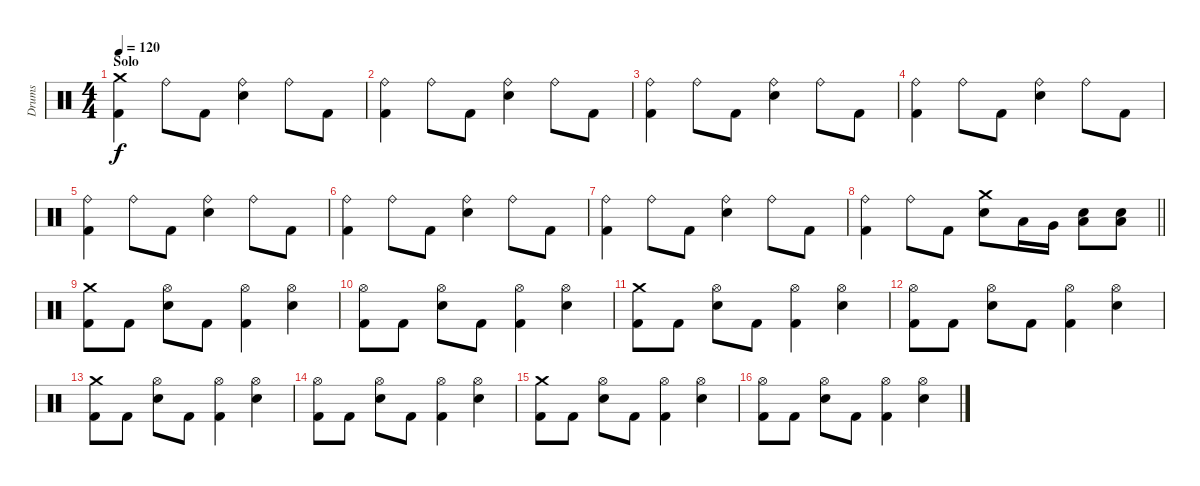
\track ("Drums" "Drums") {instrument percussion}
\staff {score}
\articulation defaults
\ts (4 4)
\section ("" "Solo")
\tempo 120
\clef neutral
\ks c
("Crash medium (hit)" "Kick (hit) 2").4{dy f} "Ride (bell)".8 "Kick (hit) 2".8 ("Ride (bell)" "Snare (hit) 2").4 "Ride (bell)".8 "Kick (hit) 2".8 |
("Ride (bell)" "Kick (hit) 2").4 "Ride (bell)".8 "Kick (hit) 2".8 ("Ride (bell)" "Snare (hit) 2").4 "Ride (bell)".8 "Kick (hit) 2".8 |
("Ride (bell)" "Kick (hit) 2").4 "Ride (bell)".8 "Kick (hit) 2".8 ("Ride (bell)" "Snare (hit) 2").4 "Ride (bell)".8 "Kick (hit) 2".8 |
("Ride (bell)" "Kick (hit) 2").4 "Ride (bell)".8 "Kick (hit) 2".8 ("Ride (bell)" "Snare (hit) 2").4 "Ride (bell)".8 "Kick (hit) 2".8 |
("Ride (bell)" "Kick (hit) 2").4 "Ride (bell)".8 "Kick (hit) 2".8 ("Ride (bell)" "Snare (hit) 2").4 "Ride (bell)".8 "Kick (hit) 2".8 |
("Ride (bell)" "Kick (hit) 2").4 "Ride (bell)".8 "Kick (hit) 2".8 ("Ride (bell)" "Snare (hit) 2").4 "Ride (bell)".8 "Kick (hit) 2".8 |
("Ride (bell)" "Kick (hit) 2").4 "Ride (bell)".8 "Kick (hit) 2".8 ("Ride (bell)" "Snare (hit) 2").4 "Ride (bell)".8 "Kick (hit) 2".8 |
\barLineRight lightlight
("Ride (bell)" "Kick (hit) 2").4 "Ride (bell)".8 "Kick (hit) 2".8 ("Crash medium (hit)" "Snare (hit) 2").8 "Low Tom (hit)".16 "Very Low Tom (hit)".16 ("Snare (hit) 2" "Low Floor Tom (hit)").8 ("Snare (hit) 2" "Low Floor Tom (hit)").8 |
("Crash medium (hit)" "Kick (hit) 2").8 "Kick (hit) 2".8 ("Hi-Hat (open)" "Snare (hit) 2").8 "Kick (hit) 2".8 ("Hi-Hat (open)" "Kick (hit) 2").4 ("Hi-Hat (open)" "Snare (hit) 2").4 |
("Hi-Hat (open)" "Kick (hit) 2").8 "Kick (hit) 2".8 ("Hi-Hat (open)" "Snare (hit) 2").8 "Kick (hit) 2".8 ("Hi-Hat (open)" "Kick (hit) 2").4 ("Hi-Hat (open)" "Snare (hit) 2").4 |
("Crash medium (hit)" "Kick (hit) 2").8 "Kick (hit) 2".8 ("Hi-Hat (open)" "Snare (hit) 2").8 "Kick (hit) 2".8 ("Hi-Hat (open)" "Kick (hit) 2").4 ("Hi-Hat (open)" "Snare (hit) 2").4 |
("Hi-Hat (open)" "Kick (hit) 2").8 "Kick (hit) 2".8 ("Hi-Hat (open)" "Snare (hit) 2").8 "Kick (hit) 2".8 ("Hi-Hat (open)" "Kick (hit) 2").4 ("Hi-Hat (open)" "Snare (hit) 2").4 |
("Crash medium (hit)" "Kick (hit) 2").8 "Kick (hit) 2".8 ("Hi-Hat (open)" "Snare (hit) 2").8 "Kick (hit) 2".8 ("Hi-Hat (open)" "Kick (hit) 2").4 ("Hi-Hat (open)" "Snare (hit) 2").4 |
("Hi-Hat (open)" "Kick (hit) 2").8 "Kick (hit) 2".8 ("Hi-Hat (open)" "Snare (hit) 2").8 "Kick (hit) 2".8 ("Hi-Hat (open)" "Kick (hit) 2").4 ("Hi-Hat (open)" "Snare (hit) 2").4 |
("Crash medium (hit)" "Kick (hit) 2").8 "Kick (hit) 2".8 ("Hi-Hat (open)" "Snare (hit) 2").8 "Kick (hit) 2".8 ("Hi-Hat (open)" "Kick (hit) 2").4 ("Hi-Hat (open)" "Snare (hit) 2").4 |
("Hi-Hat (open)" "Kick (hit) 2").8 "Kick (hit) 2".8 ("Hi-Hat (open)" "Snare (hit) 2").8 "Kick (hit) 2".8 ("Hi-Hat (open)" "Kick (hit) 2").4 ("Hi-Hat (open)" "Snare (hit) 2").4
